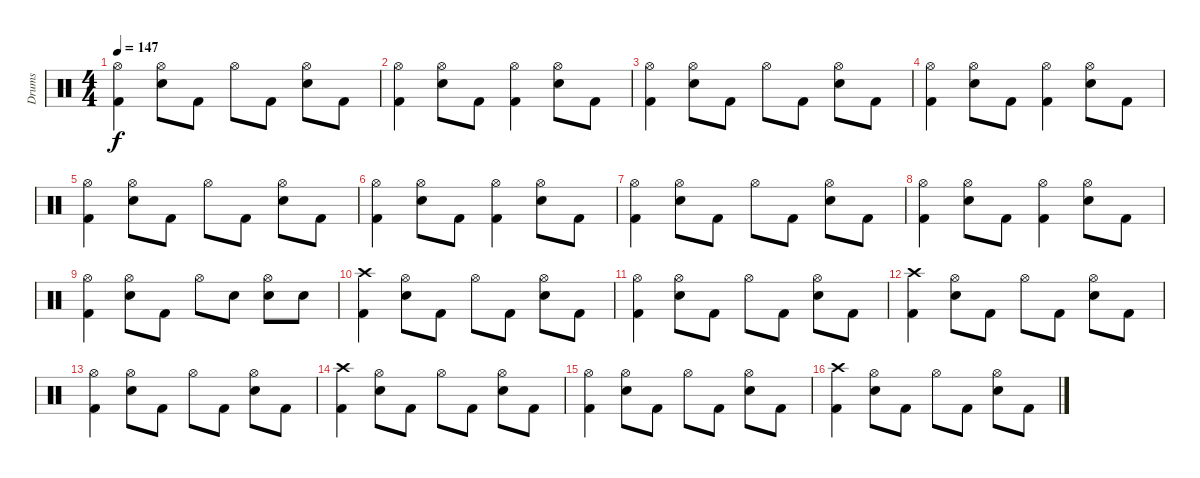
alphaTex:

\track ("Drums" "Drums") {instrument percussion}
\staff {score}
\articulation defaults
\ts (4 4)
\tempo 147
\clef neutral
\ks c
("Kick (hit) 2" "Hi-Hat (open)").4{dy f} ("Electric Snare (hit)" "Hi-Hat (open)").8 "Kick (hit) 2".8 "Hi-Hat (open)".8 "Kick (hit) 2".8 ("Electric Snare (hit)" "Hi-Hat (open)").8 "Kick (hit) 2".8 |
("Kick (hit) 2" "Hi-Hat (open)").4 ("Electric Snare (hit)" "Hi-Hat (open)").8 "Kick (hit) 2".8 ("Kick (hit) 2" "Hi-Hat (open)").4 ("Electric Snare (hit)" "Hi-Hat (open)").8 "Kick (hit) 2".8 |
("Kick (hit) 2" "Hi-Hat (open)").4 ("Electric Snare (hit)" "Hi-Hat (open)").8 "Kick (hit) 2".8 "Hi-Hat (open)".8 "Kick (hit) 2".8 ("Electric Snare (hit)" "Hi-Hat (open)").8 "Kick (hit) 2".8 |
("Kick (hit) 2" "Hi-Hat (open)").4 ("Electric Snare (hit)" "Hi-Hat (open)").8 "Kick (hit) 2".8 ("Kick (hit) 2" "Hi-Hat (open)").4 ("Electric Snare (hit)" "Hi-Hat (open)").8 "Kick (hit) 2".8 |
("Kick (hit) 2" "Hi-Hat (open)").4 ("Electric Snare (hit)" "Hi-Hat (open)").8 "Kick (hit) 2".8 "Hi-Hat (open)".8 "Kick (hit) 2".8 ("Electric Snare (hit)" "Hi-Hat (open)").8 "Kick (hit) 2".8 |
("Kick (hit) 2" "Hi-Hat (open)").4 ("Electric Snare (hit)" "Hi-Hat (open)").8 "Kick (hit) 2".8 ("Kick (hit) 2" "Hi-Hat (open)").4 ("Electric Snare (hit)" "Hi-Hat (open)").8 "Kick (hit) 2".8 |
("Kick (hit) 2" "Hi-Hat (open)").4 ("Electric Snare (hit)" "Hi-Hat (open)").8 "Kick (hit) 2".8 "Hi-Hat (open)".8 "Kick (hit) 2".8 ("Electric Snare (hit)" "Hi-Hat (open)").8 "Kick (hit) 2".8 |
("Kick (hit) 2" "Hi-Hat (open)").4 ("Electric Snare (hit)" "Hi-Hat (open)").8 "Kick (hit) 2".8 ("Kick (hit) 2" "Hi-Hat (open)").4 ("Electric Snare (hit)" "Hi-Hat (open)").8 "Kick (hit) 2".8 |
("Kick (hit) 2" "Hi-Hat (open)").4 ("Electric Snare (hit)" "Hi-Hat (open)").8 "Kick (hit) 2".8 "Hi-Hat (open)".8 "Electric Snare (hit)".8 ("Electric Snare (hit)" "Hi-Hat (open)").8 "Electric Snare (hit)".8 |
("Kick (hit) 2" "Crash high (hit)").4 ("Electric Snare (hit)" "Hi-Hat (open)").8 "Kick (hit) 2".8 "Hi-Hat (open)".8 "Kick (hit) 2".8 ("Electric Snare (hit)" "Hi-Hat (open)").8 "Kick (hit) 2".8 |
("Kick (hit) 2" "Hi-Hat (open)").4 ("Electric Snare (hit)" "Hi-Hat (open)").8 "Kick (hit) 2".8 "Hi-Hat (open)".8 "Kick (hit) 2".8 ("Electric Snare (hit)" "Hi-Hat (open)").8 "Kick (hit) 2".8 |
("Kick (hit) 2" "Crash high (hit)").4 ("Electric Snare (hit)" "Hi-Hat (open)").8 "Kick (hit) 2".8 "Hi-Hat (open)".8 "Kick (hit) 2".8 ("Electric Snare (hit)" "Hi-Hat (open)").8 "Kick (hit) 2".8 |
("Kick (hit) 2" "Hi-Hat (open)").4 ("Electric Snare (hit)" "Hi-Hat (open)").8 "Kick (hit) 2".8 "Hi-Hat (open)".8 "Kick (hit) 2".8 ("Electric Snare (hit)" "Hi-Hat (open)").8 "Kick (hit) 2".8 |
("Kick (hit) 2" "Crash high (hit)").4 ("Electric Snare (hit)" "Hi-Hat (open)").8 "Kick (hit) 2".8 "Hi-Hat (open)".8 "Kick (hit) 2".8 ("Electric Snare (hit)" "Hi-Hat (open)").8 "Kick (hit) 2".8 |
("Kick (hit) 2" "Hi-Hat (open)").4 ("Electric Snare (hit)" "Hi-Hat (open)").8 "Kick (hit) 2".8 "Hi-Hat (open)".8 "Kick (hit) 2".8 ("Electric Snare (hit)" "Hi-Hat (open)").8 "Kick (hit) 2".8 |
("Kick (hit) 2" "Crash high (hit)").4 ("Electric Snare (hit)" "Hi-Hat (open)").8 "Kick (hit) 2".8 "Hi-Hat (open)".8 "Kick (hit) 2".8 ("Electric Snare (hit)" "Hi-Hat (open)").8 "Kick (hit) 2".8
